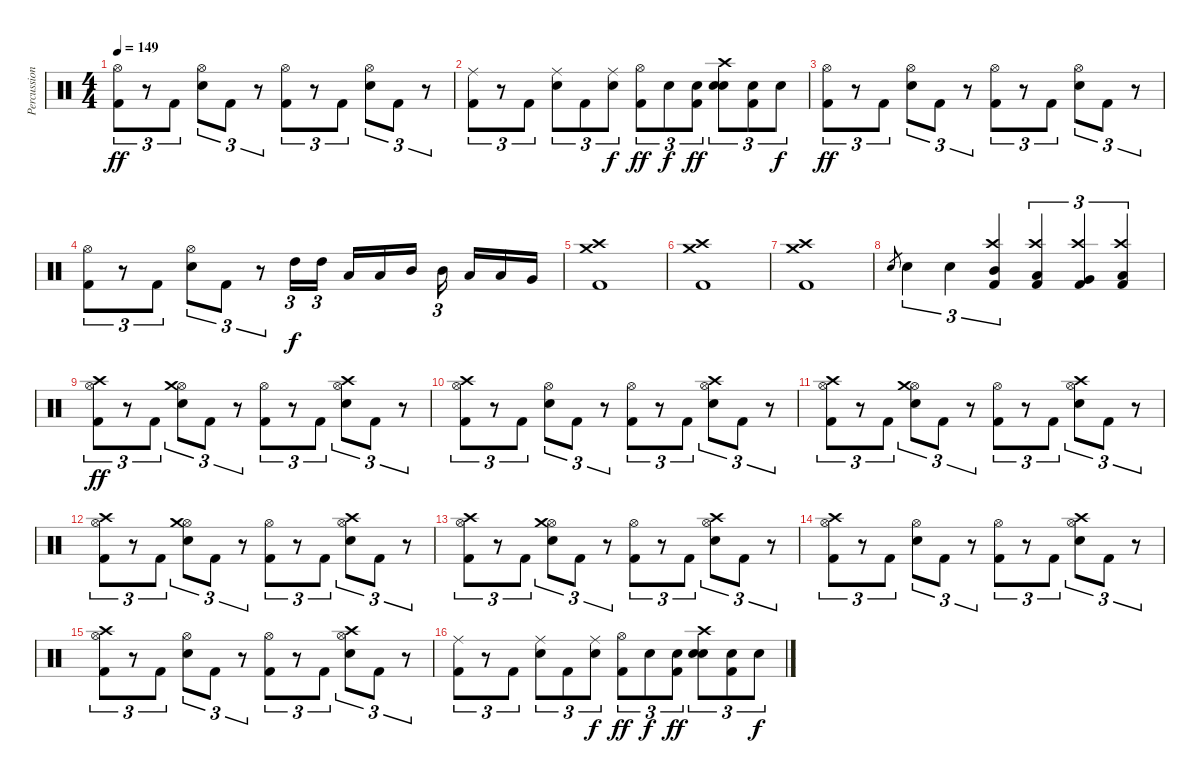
\track ("Percussion" "Percussion") {instrument percussion}
\staff {score}
\articulation defaults
\ts (4 4)
\tempo 149
\clef neutral
\ks c
("Kick (hit) 2" "Hi-Hat (open)").8{tu (3 2) dy ff} r.8{tu (3 2)} "Kick (hit) 2".8{tu (3 2)} ("Snare (hit) 2" "Hi-Hat (open)").8{tu (3 2)} "Kick (hit) 2".8{tu (3 2)} r.8{tu (3 2)} ("Kick (hit) 2" "Hi-Hat (open)").8{tu (3 2)} r.8{tu (3 2)} "Kick (hit) 2".8{tu (3 2)} ("Snare (hit) 2" "Hi-Hat (open)").8{tu (3 2)} "Kick (hit) 2".8{tu (3 2)} r.8{tu (3 2)} |
("Kick (hit) 2" "Ride (middle)").8{tu (3 2)} r.8{tu (3 2)} "Kick (hit) 2".8{tu (3 2)} ("Electric Snare (hit)" "Ride (middle)").8{tu (3 2)} "Kick (hit) 2".8{tu (3 2)} ("Electric Snare (hit)" "Ride (middle)").8{tu (3 2) dy f} ("Kick (hit) 2" "Hi-Hat (open)").8{tu (3 2) dy ff} "Electric Snare (hit)".8{tu (3 2) dy f} ("Kick (hit) 2" "Electric Snare (hit)").8{tu (3 2) dy ff} ("Snare (hit) 2" "Electric Snare (hit)" "Crash high (hit)").8{tu (3 2)} ("Kick (hit) 2" "Electric Snare (hit)").8{tu (3 2)} "Electric Snare (hit)".8{tu (3 2) dy f} |
("Kick (hit) 2" "Hi-Hat (open)").8{tu (3 2) dy ff} r.8{tu (3 2)} "Kick (hit) 2".8{tu (3 2)} ("Snare (hit) 2" "Hi-Hat (open)").8{tu (3 2)} "Kick (hit) 2".8{tu (3 2)} r.8{tu (3 2)} ("Kick (hit) 2" "Hi-Hat (open)").8{tu (3 2)} r.8{tu (3 2)} "Kick (hit) 2".8{tu (3 2)} ("Snare (hit) 2" "Hi-Hat (open)").8{tu (3 2)} "Kick (hit) 2".8{tu (3 2)} r.8{tu (3 2)} |
("Kick (hit) 2" "Hi-Hat (open)").8{tu (3 2)} r.8{tu (3 2)} "Kick (hit) 2".8{tu (3 2)} ("Snare (hit) 2" "Hi-Hat (open)").8{tu (3 2)} "Kick (hit) 2".8{tu (3 2)} r.8{tu (3 2)} "High Tom (hit)".16{tu (3 2) dy f} "High Tom (hit)".16{tu (3 2) beam splitsecondary} "Low Tom (hit)".16 "Low Tom (hit)".16 "Mid Tom (hit)".16 "Mid Tom (hit)".16{tu (3 2) beam splitsecondary} "Low Tom (hit)".16 "Low Tom (hit)".16 "Very Low Tom (hit)".16 |
("Crash medium (hit)" "Crash high (hit)" "Kick (hit) 2").1 |
("Crash medium (hit)" "Crash high (hit)" "Kick (hit) 2").1 |
("Crash medium (hit)" "Crash high (hit)" "Kick (hit) 2").1 |
"Electric Snare (hit)".8{gr} "Electric Snare (hit)".4{tu (3 2)} "Electric Snare (hit)".4{tu (3 2)} ("Mid Tom (hit)" "Kick (hit) 2" "Crash high (hit)").4{tu (3 2)} ("Low Tom (hit)" "Kick (hit) 2" "Crash high (hit)").4{tu (3 2)} ("Very Low Tom (hit)" "Kick (hit) 2" "Crash high (hit)").4{tu (3 2)} ("Low Tom (hit)" "Kick (hit) 2" "Crash high (hit)").4{tu (3 2)} |
("Kick (hit) 2" "Hi-Hat (open)" "Crash high (hit)").8{tu (3 2) dy ff} r.8{tu (3 2)} "Kick (hit) 2".8{tu (3 2)} ("Electric Snare (hit)" "Hi-Hat (open)" "Crash medium (hit)").8{tu (3 2)} "Kick (hit) 2".8{tu (3 2)} r.8{tu (3 2)} ("Kick (hit) 2" "Hi-Hat (open)").8{tu (3 2)} r.8{tu (3 2)} "Kick (hit) 2".8{tu (3 2)} ("Electric Snare (hit)" "Hi-Hat (open)" "Crash high (hit)").8{tu (3 2)} "Kick (hit) 2".8{tu (3 2)} r.8{tu (3 2)} |
("Kick (hit) 2" "Hi-Hat (open)" "Crash high (hit)").8{tu (3 2)} r.8{tu (3 2)} "Kick (hit) 2".8{tu (3 2)} ("Electric Snare (hit)" "Hi-Hat (open)").8{tu (3 2)} "Kick (hit) 2".8{tu (3 2)} r.8{tu (3 2)} ("Kick (hit) 2" "Hi-Hat (open)").8{tu (3 2)} r.8{tu (3 2)} "Kick (hit) 2".8{tu (3 2)} ("Electric Snare (hit)" "Hi-Hat (open)" "Crash high (hit)").8{tu (3 2)} "Kick (hit) 2".8{tu (3 2)} r.8{tu (3 2)} |
("Kick (hit) 2" "Hi-Hat (open)" "Crash high (hit)").8{tu (3 2)} r.8{tu (3 2)} "Kick (hit) 2".8{tu (3 2)} ("Electric Snare (hit)" "Hi-Hat (open)" "Crash medium (hit)").8{tu (3 2)} "Kick (hit) 2".8{tu (3 2)} r.8{tu (3 2)} ("Kick (hit) 2" "Hi-Hat (open)").8{tu (3 2)} r.8{tu (3 2)} "Kick (hit) 2".8{tu (3 2)} ("Electric Snare (hit)" "Hi-Hat (open)" "Crash high (hit)").8{tu (3 2)} "Kick (hit) 2".8{tu (3 2)} r.8{tu (3 2)} |
("Kick (hit) 2" "Hi-Hat (open)" "Crash high (hit)").8{tu (3 2)} r.8{tu (3 2)} "Kick (hit) 2".8{tu (3 2)} ("Electric Snare (hit)" "Hi-Hat (open)" "Crash medium (hit)").8{tu (3 2)} "Kick (hit) 2".8{tu (3 2)} r.8{tu (3 2)} ("Kick (hit) 2" "Hi-Hat (open)").8{tu (3 2)} r.8{tu (3 2)} "Kick (hit) 2".8{tu (3 2)} ("Electric Snare (hit)" "Hi-Hat (open)" "Crash high (hit)").8{tu (3 2)} "Kick (hit) 2".8{tu (3 2)} r.8{tu (3 2)} |
("Kick (hit) 2" "Hi-Hat (open)" "Crash high (hit)").8{tu (3 2)} r.8{tu (3 2)} "Kick (hit) 2".8{tu (3 2)} ("Electric Snare (hit)" "Hi-Hat (open)" "Crash medium (hit)").8{tu (3 2)} "Kick (hit) 2".8{tu (3 2)} r.8{tu (3 2)} ("Kick (hit) 2" "Hi-Hat (open)").8{tu (3 2)} r.8{tu (3 2)} "Kick (hit) 2".8{tu (3 2)} ("Electric Snare (hit)" "Hi-Hat (open)" "Crash high (hit)").8{tu (3 2)} "Kick (hit) 2".8{tu (3 2)} r.8{tu (3 2)} |
("Kick (hit) 2" "Hi-Hat (open)" "Crash high (hit)").8{tu (3 2)} r.8{tu (3 2)} "Kick (hit) 2".8{tu (3 2)} ("Electric Snare (hit)" "Hi-Hat (open)").8{tu (3 2)} "Kick (hit) 2".8{tu (3 2)} r.8{tu (3 2)} ("Kick (hit) 2" "Hi-Hat (open)").8{tu (3 2)} r.8{tu (3 2)} "Kick (hit) 2".8{tu (3 2)} ("Electric Snare (hit)" "Hi-Hat (open)" "Crash high (hit)").8{tu (3 2)} "Kick (hit) 2".8{tu (3 2)} r.8{tu (3 2)} |
("Kick (hit) 2" "Hi-Hat (open)" "Crash high (hit)").8{tu (3 2)} r.8{tu (3 2)} "Kick (hit) 2".8{tu (3 2)} ("Electric Snare (hit)" "Hi-Hat (open)").8{tu (3 2)} "Kick (hit) 2".8{tu (3 2)} r.8{tu (3 2)} ("Kick (hit) 2" "Hi-Hat (open)").8{tu (3 2)} r.8{tu (3 2)} "Kick (hit) 2".8{tu (3 2)} ("Electric Snare (hit)" "Hi-Hat (open)" "Crash high (hit)").8{tu (3 2)} "Kick (hit) 2".8{tu (3 2)} r.8{tu (3 2)} |
("Kick (hit) 2" "Ride (middle)").8{tu (3 2)} r.8{tu (3 2)} "Kick (hit) 2".8{tu (3 2)} ("Electric Snare (hit)" "Ride (middle)").8{tu (3 2)} "Kick (hit) 2".8{tu (3 2)} ("Electric Snare (hit)" "Ride (middle)").8{tu (3 2) dy f} ("Kick (hit) 2" "Hi-Hat (open)").8{tu (3 2) dy ff} "Electric Snare (hit)".8{tu (3 2) dy f} ("Kick (hit) 2" "Electric Snare (hit)").8{tu (3 2) dy ff} ("Snare (hit) 2" "Electric Snare (hit)" "Crash high (hit)").8{tu (3 2)} ("Kick (hit) 2" "Electric Snare (hit)").8{tu (3 2)} "Electric Snare (hit)".8{tu (3 2) dy f}
